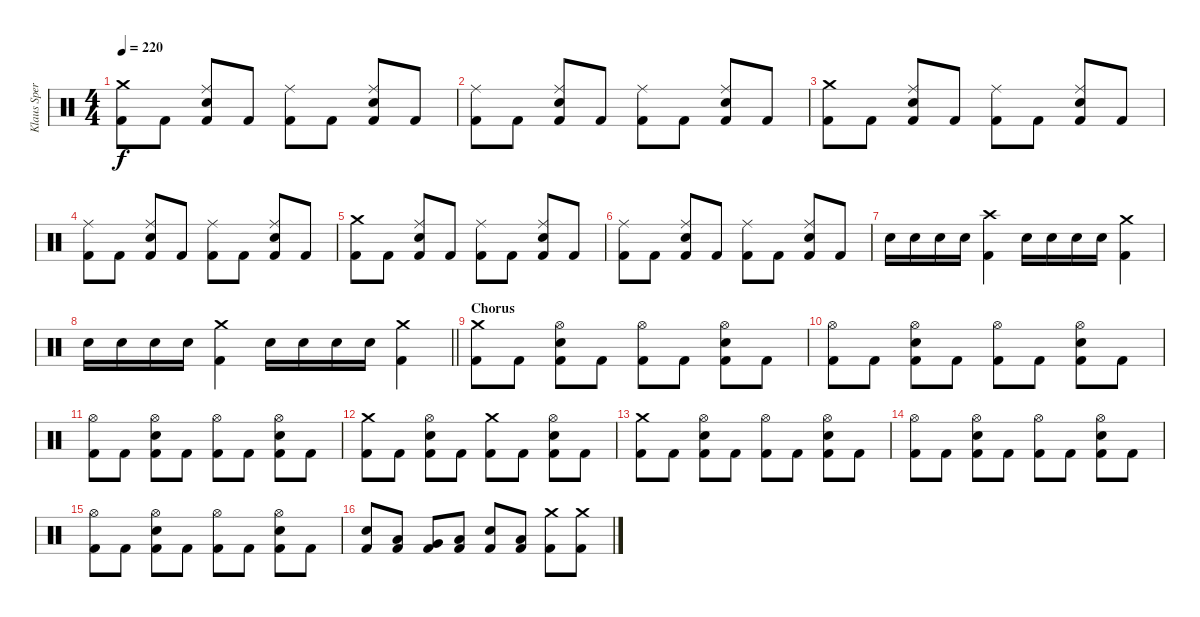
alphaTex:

\track ("Klaus Sperling" "Klaus Sper") {instrument percussion}
\staff {score}
\articulation defaults
\ts (4 4)
\tempo 220
\clef neutral
\ks c
("Crash medium (hit)" "Kick (hit) 2").8{dy f} "Kick (hit) 2".8 ("Ride (middle)" "Electric Snare (hit)" "Kick (hit) 2").8 "Kick (hit) 2".8 ("Ride (middle)" "Kick (hit) 2").8 "Kick (hit) 2".8 ("Ride (middle)" "Electric Snare (hit)" "Kick (hit) 2").8 "Kick (hit) 2".8 |
("Ride (middle)" "Kick (hit) 2").8 "Kick (hit) 2".8 ("Ride (middle)" "Electric Snare (hit)" "Kick (hit) 2").8 "Kick (hit) 2".8 ("Ride (middle)" "Kick (hit) 2").8 "Kick (hit) 2".8 ("Ride (middle)" "Electric Snare (hit)" "Kick (hit) 2").8 "Kick (hit) 2".8 |
("Crash medium (hit)" "Kick (hit) 2").8 "Kick (hit) 2".8 ("Ride (middle)" "Electric Snare (hit)" "Kick (hit) 2").8 "Kick (hit) 2".8 ("Ride (middle)" "Kick (hit) 2").8 "Kick (hit) 2".8 ("Ride (middle)" "Electric Snare (hit)" "Kick (hit) 2").8 "Kick (hit) 2".8 |
("Ride (middle)" "Kick (hit) 2").8 "Kick (hit) 2".8 ("Ride (middle)" "Electric Snare (hit)" "Kick (hit) 2").8 "Kick (hit) 2".8 ("Ride (middle)" "Kick (hit) 2").8 "Kick (hit) 2".8 ("Ride (middle)" "Electric Snare (hit)" "Kick (hit) 2").8 "Kick (hit) 2".8 |
("Crash medium (hit)" "Kick (hit) 2").8 "Kick (hit) 2".8 ("Ride (middle)" "Electric Snare (hit)" "Kick (hit) 2").8 "Kick (hit) 2".8 ("Ride (middle)" "Kick (hit) 2").8 "Kick (hit) 2".8 ("Ride (middle)" "Electric Snare (hit)" "Kick (hit) 2").8 "Kick (hit) 2".8 |
("Ride (middle)" "Kick (hit) 2").8 "Kick (hit) 2".8 ("Ride (middle)" "Electric Snare (hit)" "Kick (hit) 2").8 "Kick (hit) 2".8 ("Ride (middle)" "Kick (hit) 2").8 "Kick (hit) 2".8 ("Ride (middle)" "Electric Snare (hit)" "Kick (hit) 2").8 "Kick (hit) 2".8 |
"Electric Snare (hit)".16 "Electric Snare (hit)".16 "Electric Snare (hit)".16 "Electric Snare (hit)".16 ("Crash high (hit)" "Kick (hit) 2").4 "Electric Snare (hit)".16 "Electric Snare (hit)".16 "Electric Snare (hit)".16 "Electric Snare (hit)".16 ("Crash medium (hit)" "Kick (hit) 2").4 |
\barLineRight lightlight "Electric Snare (hit)".16 "Electric Snare (hit)".16 "Electric Snare (hit)".16 "Electric Snare (hit)".16
("Crash medium (hit)" "Kick (hit) 2").4 "Electric Snare (hit)".16 "Electric Snare (hit)".16 "Electric Snare (hit)".16 "Electric Snare (hit)".16 ("Crash medium (hit)" "Kick (hit) 2").4 |
\section ("" "Chorus")
("Crash medium (hit)" "Kick (hit) 2").8 "Kick (hit) 2".8 ("Hi-Hat (open)" "Electric Snare (hit)" "Kick (hit) 2").8 "Kick (hit) 2".8 ("Hi-Hat (open)" "Kick (hit) 2").8 "Kick (hit) 2".8 ("Hi-Hat (open)" "Electric Snare (hit)" "Kick (hit) 2").8 "Kick (hit) 2".8 |
("Hi-Hat (open)" "Kick (hit) 2").8 "Kick (hit) 2".8 ("Hi-Hat (open)" "Electric Snare (hit)" "Kick (hit) 2").8 "Kick (hit) 2".8 ("Hi-Hat (open)" "Kick (hit) 2").8 "Kick (hit) 2".8 ("Hi-Hat (open)" "Electric Snare (hit)" "Kick (hit) 2").8 "Kick (hit) 2".8 |
("Hi-Hat (open)" "Kick (hit) 2").8 "Kick (hit) 2".8 ("Hi-Hat (open)" "Electric Snare (hit)" "Kick (hit) 2").8 "Kick (hit) 2".8 ("Hi-Hat (open)" "Kick (hit) 2").8 "Kick (hit) 2".8 ("Hi-Hat (open)" "Electric Snare (hit)" "Kick (hit) 2").8 "Kick (hit) 2".8 |
("Crash medium (hit)" "Kick (hit) 2").8 "Kick (hit) 2".8 ("Hi-Hat (open)" "Electric Snare (hit)" "Kick (hit) 2").8 "Kick (hit) 2".8 ("Crash medium (hit)" "Kick (hit) 2").8 "Kick (hit) 2".8 ("Hi-Hat (open)" "Electric Snare (hit)" "Kick (hit) 2").8 "Kick (hit) 2".8 |
("Crash medium (hit)" "Kick (hit) 2").8 "Kick (hit) 2".8 ("Hi-Hat (open)" "Electric Snare (hit)" "Kick (hit) 2").8 "Kick (hit) 2".8 ("Hi-Hat (open)" "Kick (hit) 2").8 "Kick (hit) 2".8 ("Hi-Hat (open)" "Electric Snare (hit)" "Kick (hit) 2").8 "Kick (hit) 2".8 |
("Hi-Hat (open)" "Kick (hit) 2").8 "Kick (hit) 2".8 ("Hi-Hat (open)" "Electric Snare (hit)" "Kick (hit) 2").8 "Kick (hit) 2".8 ("Hi-Hat (open)" "Kick (hit) 2").8 "Kick (hit) 2".8 ("Hi-Hat (open)" "Electric Snare (hit)" "Kick (hit) 2").8 "Kick (hit) 2".8 |
("Hi-Hat (open)" "Kick (hit) 2").8 "Kick (hit) 2".8 ("Hi-Hat (open)" "Electric Snare (hit)" "Kick (hit) 2").8 "Kick (hit) 2".8 ("Hi-Hat (open)" "Kick (hit) 2").8 "Kick (hit) 2".8 ("Hi-Hat (open)" "Electric Snare (hit)" "Kick (hit) 2").8 "Kick (hit) 2".8 |
("Electric Snare (hit)" "Kick (hit) 2").8 ("Low Tom (hit)" "Kick (hit) 2").8 ("Very Low Tom (hit)" "Kick (hit) 2").8 ("Low Floor Tom (hit)" "Kick (hit) 2").8 ("Electric Snare (hit)" "Kick (hit) 2").8 ("Low Floor Tom (hit)" "Kick (hit) 2").8 ("Crash medium (hit)" "Kick (hit) 2").8 ("Crash medium (hit)" "Kick (hit) 2").8
